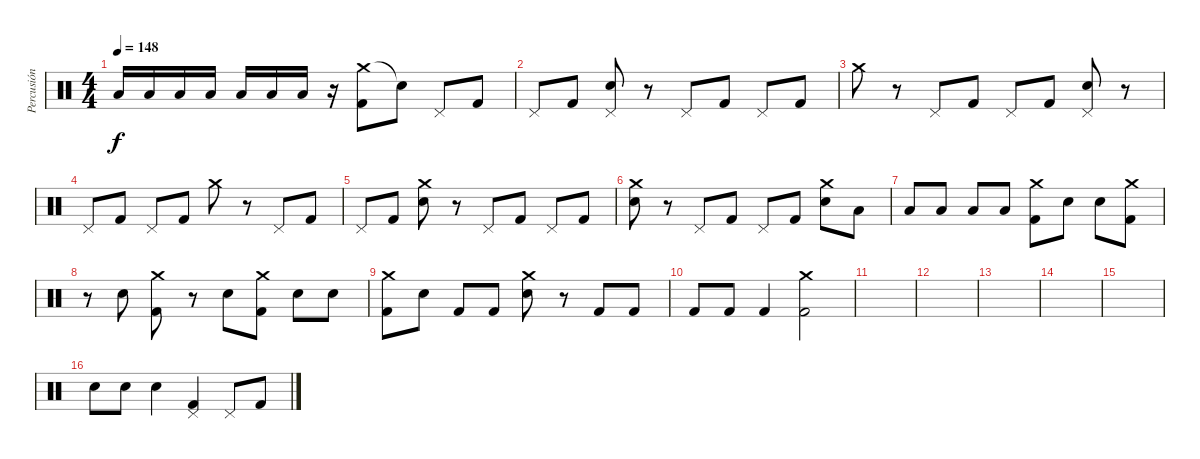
\track ("Percusión" "Percusión") {instrument percussion}
\staff {score}
\articulation defaults
\ts (4 4)
\tempo 148
\clef neutral
\ks c "Low Tom (hit)".16{dy f} "Low Tom (hit)".16 "Low Tom (hit)".16 "Low Floor Tom (hit)".16 "Low Floor Tom (hit)".16 "Low Floor Tom (hit)".16 "Low Floor Tom (hit)".16
r.16 ("Crash medium (hit)" "Kick (hit) 2").8 "Snare (hit)"{t}.8 "Pedal Hi-Hat (hit)".8 "Kick (hit) 2".8 |
"Pedal Hi-Hat (hit)".8 "Kick (hit) 2".8 ("Pedal Hi-Hat (hit)" "Snare (hit) 2").8 r.8 "Pedal Hi-Hat (hit)".8 "Kick (hit) 2".8 "Pedal Hi-Hat (hit)".8 "Kick (hit) 2".8 |
"Crash medium (hit)".8 r.8 "Pedal Hi-Hat (hit)".8 "Kick (hit) 2".8 "Pedal Hi-Hat (hit)".8 "Kick (hit) 2".8 ("Pedal Hi-Hat (hit)" "Snare (hit) 2").8 r.8 |
"Pedal Hi-Hat (hit)".8 "Kick (hit) 2".8 "Pedal Hi-Hat (hit)".8 "Kick (hit) 2".8 "Crash medium (hit)".8 r.8 "Pedal Hi-Hat (hit)".8 "Kick (hit) 2".8 |
"Pedal Hi-Hat (hit)".8 "Kick (hit) 2".8 ("Crash medium (hit)" "Snare (hit) 2").8 r.8 "Pedal Hi-Hat (hit)".8 "Kick (hit) 2".8 "Pedal Hi-Hat (hit)".8 "Kick (hit) 2".8 |
("Crash medium (hit)" "Snare (hit) 2").8 r.8 "Pedal Hi-Hat (hit)".8 "Kick (hit) 2".8 "Pedal Hi-Hat (hit)".8 "Kick (hit) 2".8 ("Crash medium (hit)" "Snare (hit) 2").8 "Low Floor Tom (hit)".8 |
"Low Floor Tom (hit)".8 "Low Floor Tom (hit)".8 "Low Floor Tom (hit)".8 "Low Floor Tom (hit)".8 ("Crash medium (hit)" "Kick (hit) 2").8 "Snare (hit) 2".8 "Snare (hit) 2".8 ("Crash medium (hit)" "Kick (hit) 2").8 |
r.8 "Snare (hit) 2".8 ("Crash medium (hit)" "Kick (hit) 2").8 r.8 "Snare (hit) 2".8 ("Crash medium (hit)" "Kick (hit) 2").8 "Snare (hit) 2".8 "Snare (hit) 2".8 |
("Crash medium (hit)" "Kick (hit) 2").8 "Snare (hit) 2".8 "Kick (hit) 2".8 "Kick (hit) 2".8 ("Crash medium (hit)" "Snare (hit) 2").8 r.8 "Kick (hit) 2".8 "Kick (hit) 2".8 |
"Kick (hit) 2".8 "Kick (hit) 2".8 "Kick (hit) 2".4 ("Crash medium (hit)" "Kick (hit) 2").2 |
|
|
|
|
|
"Snare (hit) 2".8 "Snare (hit) 2".8 "Snare (hit) 2".4 ("Pedal Hi-Hat (hit)" "Kick (hit) 2").4 "Pedal Hi-Hat (hit)".8 "Kick (hit) 2".8
